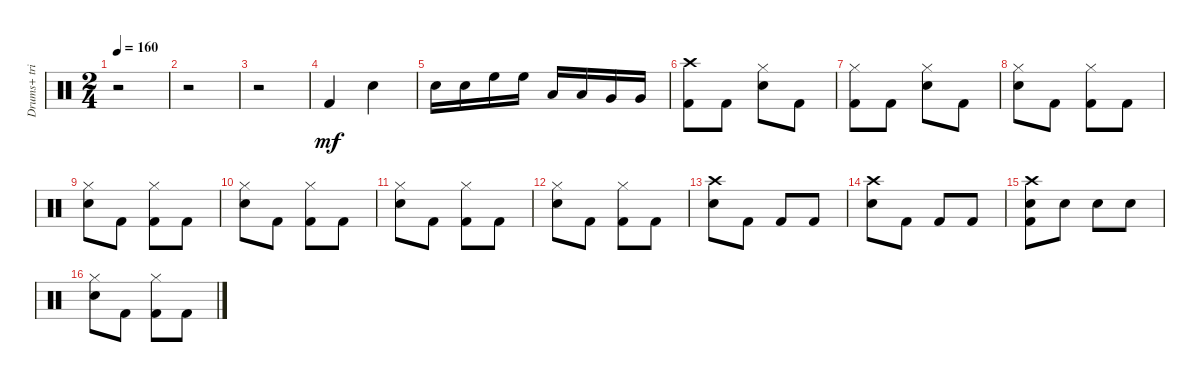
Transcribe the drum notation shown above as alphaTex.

\track ("Drums+ triangle" "Drums+ tri") {instrument percussion}
\staff {score}
\articulation defaults
\ts (2 4)
\tempo 160
\clef neutral
\ks c
r.2{dy mf} |
r.2 |
r.2 |
"Kick (hit) 2".4 "Snare (hit) 2".4 |
"Snare (hit) 2".16 "Snare (hit) 2".16 "High Floor Tom (hit)".16 "High Floor Tom (hit)".16 "Low Tom (hit)".16 "Low Tom (hit)".16 "Very Low Tom (hit)".16 "Very Low Tom (hit)".16 |
("Kick (hit) 2" "Crash high (hit)").8 "Kick (hit) 2".8 ("Snare (hit) 2" "Hi-Hat (closed)").8 "Kick (hit) 2".8 |
("Kick (hit) 2" "Hi-Hat (closed)").8 "Kick (hit) 2".8 ("Snare (hit) 2" "Hi-Hat (closed)").8 "Kick (hit) 2".8 |
("Hi-Hat (closed)" "Snare (hit) 2").8 "Kick (hit) 2".8 ("Hi-Hat (closed)" "Kick (hit) 2").8 "Kick (hit) 2".8 |
("Hi-Hat (closed)" "Snare (hit) 2").8 "Kick (hit) 2".8 ("Hi-Hat (closed)" "Kick (hit) 2").8 "Kick (hit) 2".8 |
("Hi-Hat (closed)" "Snare (hit) 2").8 "Kick (hit) 2".8 ("Hi-Hat (closed)" "Kick (hit) 2").8 "Kick (hit) 2".8 |
("Hi-Hat (closed)" "Snare (hit) 2").8 "Kick (hit) 2".8 ("Hi-Hat (closed)" "Kick (hit) 2").8 "Kick (hit) 2".8 |
("Hi-Hat (closed)" "Snare (hit) 2").8 "Kick (hit) 2".8 ("Hi-Hat (closed)" "Kick (hit) 2").8 "Kick (hit) 2".8 |
("Crash high (hit)" "Snare (hit) 2").8 "Kick (hit) 2".8 "Kick (hit) 2".8 "Kick (hit) 2".8 |
("Crash high (hit)" "Snare (hit) 2").8 "Kick (hit) 2".8 "Kick (hit) 2".8 "Kick (hit) 2".8 |
("Crash high (hit)" "Snare (hit) 2" "Kick (hit) 2").8 "Snare (hit) 2".8 "Snare (hit) 2".8 "Snare (hit) 2".8 |
("Hi-Hat (closed)" "Snare (hit) 2").8 "Kick (hit) 2".8 ("Hi-Hat (closed)" "Kick (hit) 2").8 "Kick (hit) 2".8
